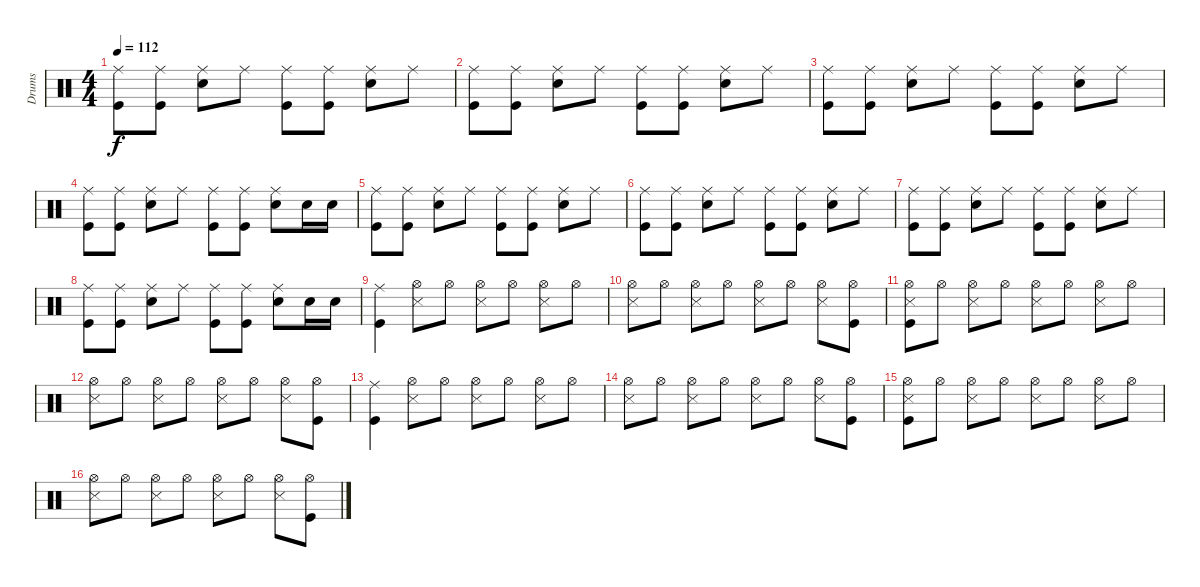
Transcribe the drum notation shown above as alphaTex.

\track ("Drums" "Drums") {instrument percussion}
\staff {score}
\articulation defaults
\ts (4 4)
\tempo 112
\clef neutral
\ks c
("Ride (middle)" "Kick (hit)").8{dy f} ("Ride (middle)" "Kick (hit)").8 ("Ride (middle)" "Snare (hit) 2").8 "Ride (middle)".8 ("Ride (middle)" "Kick (hit)").8 ("Ride (middle)" "Kick (hit)").8 ("Ride (middle)" "Snare (hit) 2").8 "Ride (middle)".8 |
("Ride (middle)" "Kick (hit)").8 ("Ride (middle)" "Kick (hit)").8 ("Ride (middle)" "Snare (hit) 2").8 "Ride (middle)".8 ("Ride (middle)" "Kick (hit)").8 ("Ride (middle)" "Kick (hit)").8 ("Ride (middle)" "Snare (hit) 2").8 "Ride (middle)".8 |
("Ride (middle)" "Kick (hit)").8 ("Ride (middle)" "Kick (hit)").8 ("Ride (middle)" "Snare (hit) 2").8 "Ride (middle)".8 ("Ride (middle)" "Kick (hit)").8 ("Ride (middle)" "Kick (hit)").8 ("Ride (middle)" "Snare (hit) 2").8 "Ride (middle)".8 |
("Ride (middle)" "Kick (hit)").8 ("Ride (middle)" "Kick (hit)").8 ("Ride (middle)" "Snare (hit) 2").8 "Ride (middle)".8 ("Ride (middle)" "Kick (hit)").8 ("Ride (middle)" "Kick (hit)").8 ("Ride (middle)" "Snare (hit) 2").8 "Snare (hit) 2".16 "Snare (hit) 2".16 |
("Ride (middle)" "Kick (hit)").8 ("Ride (middle)" "Kick (hit)").8 ("Ride (middle)" "Snare (hit) 2").8 "Ride (middle)".8 ("Ride (middle)" "Kick (hit)").8 ("Ride (middle)" "Kick (hit)").8 ("Ride (middle)" "Snare (hit) 2").8 "Ride (middle)".8 |
("Ride (middle)" "Kick (hit)").8 ("Ride (middle)" "Kick (hit)").8 ("Ride (middle)" "Snare (hit) 2").8 "Ride (middle)".8 ("Ride (middle)" "Kick (hit)").8 ("Ride (middle)" "Kick (hit)").8 ("Ride (middle)" "Snare (hit) 2").8 "Ride (middle)".8 |
("Ride (middle)" "Kick (hit)").8 ("Ride (middle)" "Kick (hit)").8 ("Ride (middle)" "Snare (hit) 2").8 "Ride (middle)".8 ("Ride (middle)" "Kick (hit)").8 ("Ride (middle)" "Kick (hit)").8 ("Ride (middle)" "Snare (hit) 2").8 "Ride (middle)".8 |
("Ride (middle)" "Kick (hit)").8 ("Ride (middle)" "Kick (hit)").8 ("Ride (middle)" "Snare (hit) 2").8 "Ride (middle)".8 ("Ride (middle)" "Kick (hit)").8 ("Ride (middle)" "Kick (hit)").8 ("Ride (middle)" "Snare (hit) 2").8 "Snare (hit) 2".16 "Snare (hit) 2".16 |
("Ride (middle)" "Kick (hit)").4 ("Hi-Hat (open)" "Snare (side stick) 3").8 "Hi-Hat (open)".8 ("Hi-Hat (open)" "Snare (side stick) 3").8 "Hi-Hat (open)".8 ("Hi-Hat (open)" "Snare (side stick) 3").8 "Hi-Hat (open)".8 |
("Hi-Hat (open)" "Snare (side stick) 3").8 "Hi-Hat (open)".8 ("Hi-Hat (open)" "Snare (side stick) 3").8 "Hi-Hat (open)".8 ("Hi-Hat (open)" "Snare (side stick) 3").8 "Hi-Hat (open)".8 ("Hi-Hat (open)" "Snare (side stick) 3").8 ("Hi-Hat (open)" "Kick (hit)").8 |
("Hi-Hat (open)" "Snare (side stick) 3" "Kick (hit)").8 "Hi-Hat (open)".8 ("Hi-Hat (open)" "Snare (side stick) 3").8 "Hi-Hat (open)".8 ("Hi-Hat (open)" "Snare (side stick) 3").8 "Hi-Hat (open)".8 ("Hi-Hat (open)" "Snare (side stick) 3").8 "Hi-Hat (open)".8 |
("Hi-Hat (open)" "Snare (side stick) 3").8 "Hi-Hat (open)".8 ("Hi-Hat (open)" "Snare (side stick) 3").8 "Hi-Hat (open)".8 ("Hi-Hat (open)" "Snare (side stick) 3").8 "Hi-Hat (open)".8 ("Hi-Hat (open)" "Snare (side stick) 3").8 ("Hi-Hat (open)" "Kick (hit)").8 |
("Ride (middle)" "Kick (hit)").4 ("Hi-Hat (open)" "Snare (side stick) 3").8 "Hi-Hat (open)".8 ("Hi-Hat (open)" "Snare (side stick) 3").8 "Hi-Hat (open)".8 ("Hi-Hat (open)" "Snare (side stick) 3").8 "Hi-Hat (open)".8 |
("Hi-Hat (open)" "Snare (side stick) 3").8 "Hi-Hat (open)".8 ("Hi-Hat (open)" "Snare (side stick) 3").8 "Hi-Hat (open)".8 ("Hi-Hat (open)" "Snare (side stick) 3").8 "Hi-Hat (open)".8 ("Hi-Hat (open)" "Snare (side stick) 3").8 ("Hi-Hat (open)" "Kick (hit)").8 |
("Hi-Hat (open)" "Snare (side stick) 3" "Kick (hit)").8 "Hi-Hat (open)".8 ("Hi-Hat (open)" "Snare (side stick) 3").8 "Hi-Hat (open)".8 ("Hi-Hat (open)" "Snare (side stick) 3").8 "Hi-Hat (open)".8 ("Hi-Hat (open)" "Snare (side stick) 3").8 "Hi-Hat (open)".8 |
("Hi-Hat (open)" "Snare (side stick) 3").8 "Hi-Hat (open)".8 ("Hi-Hat (open)" "Snare (side stick) 3").8 "Hi-Hat (open)".8 ("Hi-Hat (open)" "Snare (side stick) 3").8 "Hi-Hat (open)".8 ("Hi-Hat (open)" "Snare (side stick) 3").8 ("Hi-Hat (open)" "Kick (hit)").8
